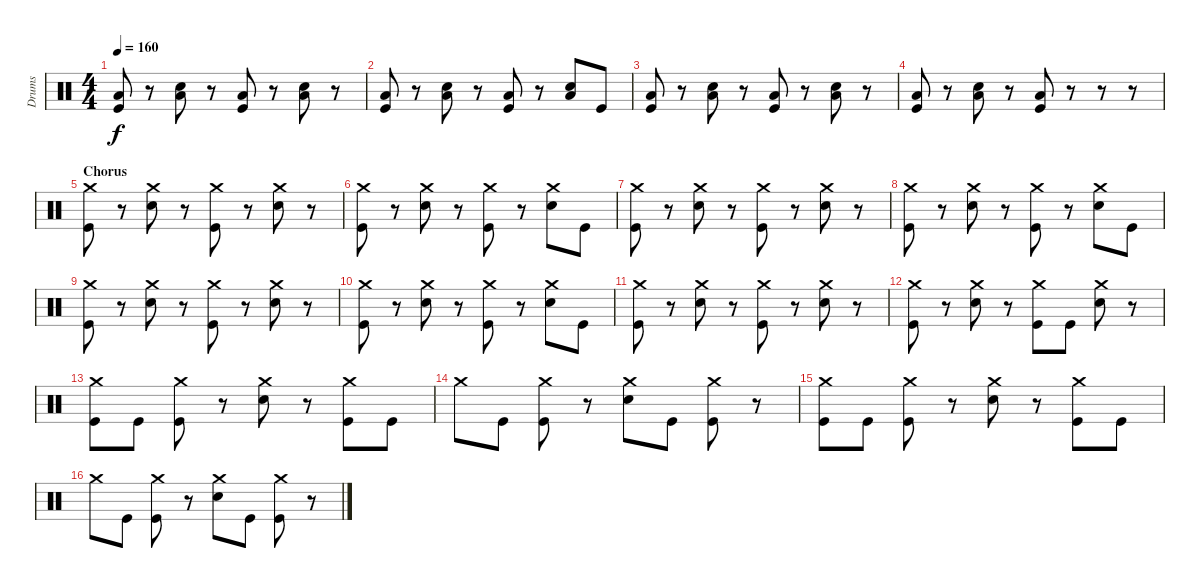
\track ("Drums" "Drums") {instrument percussion}
\staff {score}
\articulation defaults
\ts (4 4)
\tempo 160
\clef neutral
\ks c
("Low Tom (hit)" "Kick (hit)").8{dy f} r.8 ("Low Tom (hit)" "Electric Snare (hit)").8 r.8 ("Low Tom (hit)" "Kick (hit)").8 r.8 ("Low Tom (hit)" "Electric Snare (hit)").8 r.8 |
("Low Tom (hit)" "Kick (hit)").8 r.8 ("Low Tom (hit)" "Electric Snare (hit)").8 r.8 ("Low Tom (hit)" "Kick (hit)").8 r.8 ("Low Tom (hit)" "Electric Snare (hit)").8 "Kick (hit)".8 |
("Low Tom (hit)" "Kick (hit)").8 r.8 ("Low Tom (hit)" "Electric Snare (hit)").8 r.8 ("Low Tom (hit)" "Kick (hit)").8 r.8 ("Low Tom (hit)" "Electric Snare (hit)").8 r.8 |
("Low Tom (hit)" "Kick (hit)").8 r.8 ("Low Tom (hit)" "Electric Snare (hit)").8 r.8 ("Low Tom (hit)" "Kick (hit)").8 r.8 r.8 r.8 |
\section ("" "Chorus")
("Crash medium (hit)" "Kick (hit)").8 r.8 ("Crash medium (hit)" "Electric Snare (hit)").8 r.8 ("Crash medium (hit)" "Kick (hit)").8 r.8 ("Crash medium (hit)" "Electric Snare (hit)").8 r.8 |
("Crash medium (hit)" "Kick (hit)").8 r.8 ("Crash medium (hit)" "Electric Snare (hit)").8 r.8 ("Crash medium (hit)" "Kick (hit)").8 r.8 ("Crash medium (hit)" "Electric Snare (hit)").8 "Kick (hit)".8 |
("Crash medium (hit)" "Kick (hit)").8 r.8 ("Crash medium (hit)" "Electric Snare (hit)").8 r.8 ("Crash medium (hit)" "Kick (hit)").8 r.8 ("Crash medium (hit)" "Electric Snare (hit)").8 r.8 |
("Crash medium (hit)" "Kick (hit)").8 r.8 ("Crash medium (hit)" "Electric Snare (hit)").8 r.8 ("Crash medium (hit)" "Kick (hit)").8 r.8 ("Crash medium (hit)" "Electric Snare (hit)").8 "Kick (hit)".8 |
("Crash medium (hit)" "Kick (hit)").8 r.8 ("Crash medium (hit)" "Electric Snare (hit)").8 r.8 ("Crash medium (hit)" "Kick (hit)").8 r.8 ("Crash medium (hit)" "Electric Snare (hit)").8 r.8 |
("Crash medium (hit)" "Kick (hit)").8 r.8 ("Crash medium (hit)" "Electric Snare (hit)").8 r.8 ("Crash medium (hit)" "Kick (hit)").8 r.8 ("Crash medium (hit)" "Electric Snare (hit)").8 "Kick (hit)".8 |
("Crash medium (hit)" "Kick (hit)").8 r.8 ("Crash medium (hit)" "Electric Snare (hit)").8 r.8 ("Crash medium (hit)" "Kick (hit)").8 r.8 ("Crash medium (hit)" "Electric Snare (hit)").8 r.8 |
("Crash medium (hit)" "Kick (hit)").8 r.8 ("Crash medium (hit)" "Electric Snare (hit)").8 r.8 ("Crash medium (hit)" "Kick (hit)").8 "Kick (hit)".8 ("Crash medium (hit)" "Electric Snare (hit)").8 r.8 |
("Crash medium (hit)" "Kick (hit)").8 "Kick (hit)".8 ("Crash medium (hit)" "Kick (hit)").8 r.8 ("Crash medium (hit)" "Electric Snare (hit)").8 r.8 ("Crash medium (hit)" "Kick (hit)").8 "Kick (hit)".8 |
"Crash medium (hit)".8 "Kick (hit)".8 ("Crash medium (hit)" "Kick (hit)").8 r.8 ("Crash medium (hit)" "Electric Snare (hit)").8 "Kick (hit)".8 ("Crash medium (hit)" "Kick (hit)").8 r.8 |
("Crash medium (hit)" "Kick (hit)").8 "Kick (hit)".8 ("Crash medium (hit)" "Kick (hit)").8 r.8 ("Crash medium (hit)" "Electric Snare (hit)").8 r.8 ("Crash medium (hit)" "Kick (hit)").8 "Kick (hit)".8 |
"Crash medium (hit)".8 "Kick (hit)".8 ("Crash medium (hit)" "Kick (hit)").8 r.8 ("Crash medium (hit)" "Electric Snare (hit)").8 "Kick (hit)".8 ("Crash medium (hit)" "Kick (hit)").8 r.8
